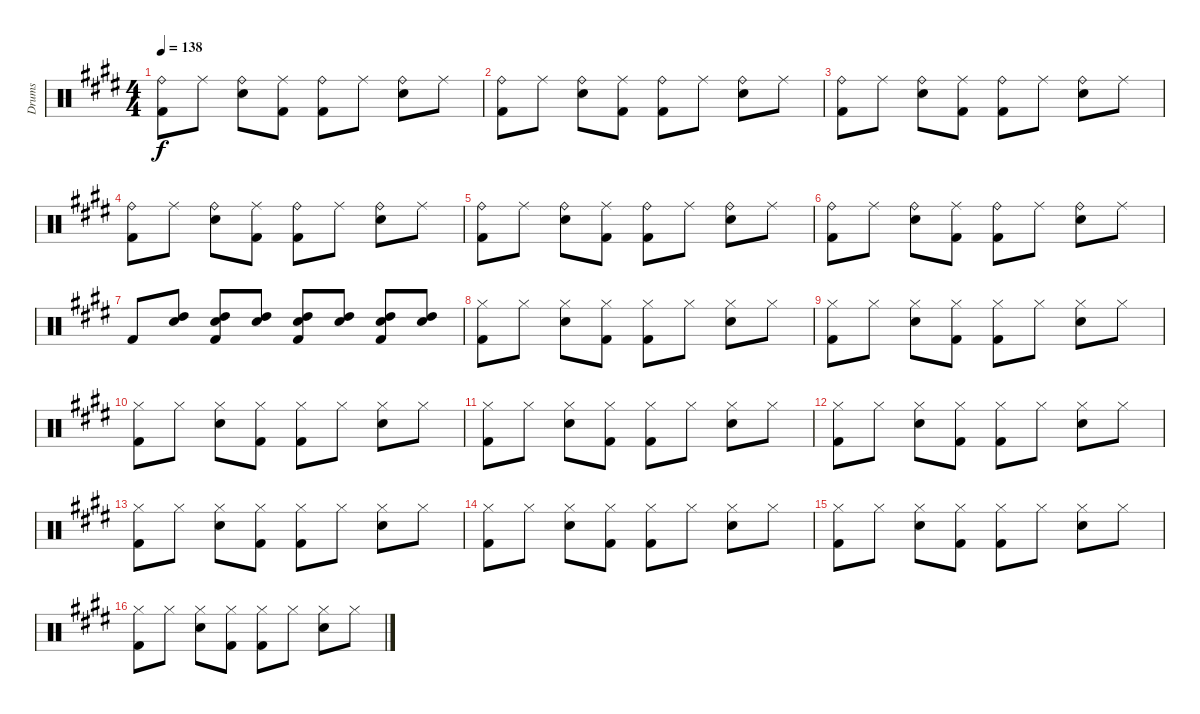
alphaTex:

\track ("Drums" "Drums") {instrument percussion}
\staff {score}
\articulation defaults
\ts (4 4)
\tempo 138
\clef neutral
\ks e
("Ride (bell)" "Kick (hit) 2").8{dy f} "Ride (middle)".8 ("Ride (bell)" "Snare (hit) 2").8 ("Ride (middle)" "Kick (hit) 2").8 ("Ride (bell)" "Kick (hit) 2").8 "Ride (middle)".8 ("Ride (bell)" "Snare (hit) 2").8 "Ride (middle)".8 |
("Ride (bell)" "Kick (hit) 2").8 "Ride (middle)".8 ("Ride (bell)" "Snare (hit) 2").8 ("Ride (middle)" "Kick (hit) 2").8 ("Ride (bell)" "Kick (hit) 2").8 "Ride (middle)".8 ("Ride (bell)" "Snare (hit) 2").8 "Ride (middle)".8 |
("Ride (bell)" "Kick (hit) 2").8 "Ride (middle)".8 ("Ride (bell)" "Snare (hit) 2").8 ("Ride (middle)" "Kick (hit) 2").8 ("Ride (bell)" "Kick (hit) 2").8 "Ride (middle)".8 ("Ride (bell)" "Snare (hit) 2").8 "Ride (middle)".8 |
("Ride (bell)" "Kick (hit) 2").8 "Ride (middle)".8 ("Ride (bell)" "Snare (hit) 2").8 ("Ride (middle)" "Kick (hit) 2").8 ("Ride (bell)" "Kick (hit) 2").8 "Ride (middle)".8 ("Ride (bell)" "Snare (hit) 2").8 "Ride (middle)".8 |
("Ride (bell)" "Kick (hit) 2").8 "Ride (middle)".8 ("Ride (bell)" "Snare (hit) 2").8 ("Ride (middle)" "Kick (hit) 2").8 ("Ride (bell)" "Kick (hit) 2").8 "Ride (middle)".8 ("Ride (bell)" "Snare (hit) 2").8 "Ride (middle)".8 |
("Ride (bell)" "Kick (hit) 2").8 "Ride (middle)".8 ("Ride (bell)" "Snare (hit) 2").8 ("Ride (middle)" "Kick (hit) 2").8 ("Ride (bell)" "Kick (hit) 2").8 "Ride (middle)".8 ("Ride (bell)" "Snare (hit) 2").8 "Ride (middle)".8 |
"Kick (hit) 2".8 ("High Tom (hit)" "Snare (hit) 2").8 ("High Tom (hit)" "Snare (hit) 2" "Kick (hit) 2").8 ("High Tom (hit)" "Snare (hit) 2").8 ("High Tom (hit)" "Snare (hit) 2" "Kick (hit) 2").8 ("High Tom (hit)" "Snare (hit) 2").8 ("High Tom (hit)" "Snare (hit) 2" "Kick (hit) 2").8 ("High Tom (hit)" "Snare (hit) 2").8 |
("Hi-Hat (closed)" "Kick (hit) 2").8 "Hi-Hat (closed)".8 ("Hi-Hat (closed)" "Snare (hit) 2").8 ("Hi-Hat (closed)" "Kick (hit) 2").8 ("Hi-Hat (closed)" "Kick (hit) 2").8 "Hi-Hat (closed)".8 ("Hi-Hat (closed)" "Snare (hit) 2").8 "Hi-Hat (closed)".8 |
("Hi-Hat (closed)" "Kick (hit) 2").8 "Hi-Hat (closed)".8 ("Hi-Hat (closed)" "Snare (hit) 2").8 ("Hi-Hat (closed)" "Kick (hit) 2").8 ("Hi-Hat (closed)" "Kick (hit) 2").8 "Hi-Hat (closed)".8 ("Hi-Hat (closed)" "Snare (hit) 2").8 "Hi-Hat (closed)".8 |
("Hi-Hat (closed)" "Kick (hit) 2").8 "Hi-Hat (closed)".8 ("Hi-Hat (closed)" "Snare (hit) 2").8 ("Hi-Hat (closed)" "Kick (hit) 2").8 ("Hi-Hat (closed)" "Kick (hit) 2").8 "Hi-Hat (closed)".8 ("Hi-Hat (closed)" "Snare (hit) 2").8 "Hi-Hat (closed)".8 |
("Hi-Hat (closed)" "Kick (hit) 2").8 "Hi-Hat (closed)".8 ("Hi-Hat (closed)" "Snare (hit) 2").8 ("Hi-Hat (closed)" "Kick (hit) 2").8 ("Hi-Hat (closed)" "Kick (hit) 2").8 "Hi-Hat (closed)".8 ("Hi-Hat (closed)" "Snare (hit) 2").8 "Hi-Hat (closed)".8 |
("Hi-Hat (closed)" "Kick (hit) 2").8 "Hi-Hat (closed)".8 ("Hi-Hat (closed)" "Snare (hit) 2").8 ("Hi-Hat (closed)" "Kick (hit) 2").8 ("Hi-Hat (closed)" "Kick (hit) 2").8 "Hi-Hat (closed)".8 ("Hi-Hat (closed)" "Snare (hit) 2").8 "Hi-Hat (closed)".8 |
("Hi-Hat (closed)" "Kick (hit) 2").8 "Hi-Hat (closed)".8 ("Hi-Hat (closed)" "Snare (hit) 2").8 ("Hi-Hat (closed)" "Kick (hit) 2").8 ("Hi-Hat (closed)" "Kick (hit) 2").8 "Hi-Hat (closed)".8 ("Hi-Hat (closed)" "Snare (hit) 2").8 "Hi-Hat (closed)".8 |
("Hi-Hat (closed)" "Kick (hit) 2").8 "Hi-Hat (closed)".8 ("Hi-Hat (closed)" "Snare (hit) 2").8 ("Hi-Hat (closed)" "Kick (hit) 2").8 ("Hi-Hat (closed)" "Kick (hit) 2").8 "Hi-Hat (closed)".8 ("Hi-Hat (closed)" "Snare (hit) 2").8 "Hi-Hat (closed)".8 |
("Hi-Hat (closed)" "Kick (hit) 2").8 "Hi-Hat (closed)".8 ("Hi-Hat (closed)" "Snare (hit) 2").8 ("Hi-Hat (closed)" "Kick (hit) 2").8 ("Hi-Hat (closed)" "Kick (hit) 2").8 "Hi-Hat (closed)".8 ("Hi-Hat (closed)" "Snare (hit) 2").8 "Hi-Hat (closed)".8 |
("Hi-Hat (closed)" "Kick (hit) 2").8 "Hi-Hat (closed)".8 ("Hi-Hat (closed)" "Snare (hit) 2").8 ("Hi-Hat (closed)" "Kick (hit) 2").8 ("Hi-Hat (closed)" "Kick (hit) 2").8 "Hi-Hat (closed)".8 ("Hi-Hat (closed)" "Snare (hit) 2").8 "Hi-Hat (closed)".8
